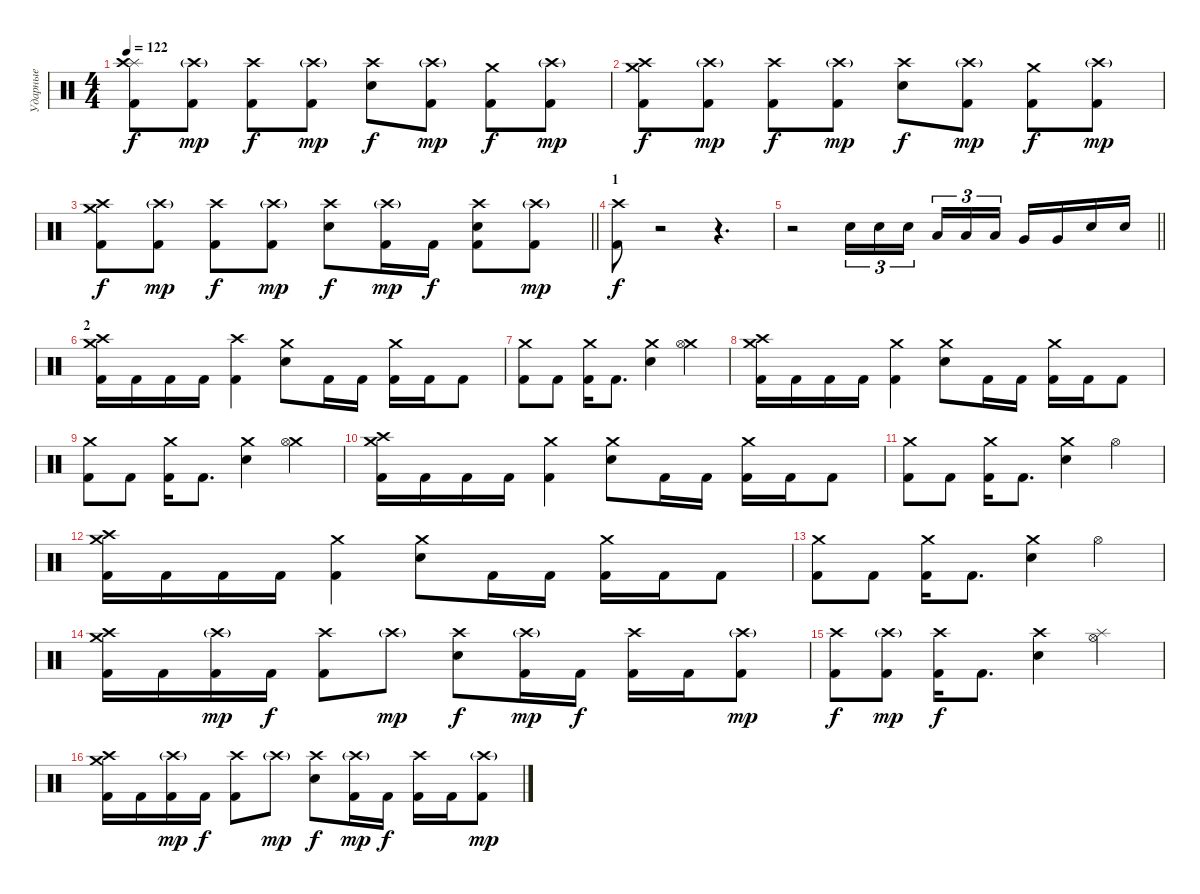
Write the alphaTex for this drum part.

\track ("Ударные" "Ударные") {instrument percussion}
\staff {score}
\articulation defaults
\ts (4 4)
\tempo 122
\clef neutral
\ks c
("Splash (hit)" "Crash high (hit)" "Kick (hit) 2").8{dy f} ("Crash high (hit)"{g} "Kick (hit) 2").8{dy mp} ("Crash high (hit)" "Kick (hit) 2").8{dy f} ("Crash high (hit)"{g} "Kick (hit) 2").8{dy mp} ("Crash high (hit)" "Electric Snare (hit)").8{dy f} ("Crash high (hit)"{g} "Kick (hit) 2").8{dy mp} ("Crash medium (hit)" "Kick (hit) 2").8{dy f} ("Crash high (hit)"{g} "Kick (hit) 2").8{dy mp} |
("Crash medium (hit)" "Crash high (hit)" "Kick (hit) 2").8{dy f} ("Crash high (hit)"{g} "Kick (hit) 2").8{dy mp} ("Crash high (hit)" "Kick (hit) 2").8{dy f} ("Crash high (hit)"{g} "Kick (hit) 2").8{dy mp} ("Crash high (hit)" "Electric Snare (hit)").8{dy f} ("Crash high (hit)"{g} "Kick (hit) 2").8{dy mp} ("Crash medium (hit)" "Kick (hit) 2").8{dy f} ("Crash high (hit)"{g} "Kick (hit) 2").8{dy mp} |
\barLineRight lightlight
("Crash medium (hit)" "Crash high (hit)" "Kick (hit) 2").8{dy f} ("Crash high (hit)"{g} "Kick (hit) 2").8{dy mp} ("Crash high (hit)" "Kick (hit) 2").8{dy f} ("Crash high (hit)"{g} "Kick (hit) 2").8{dy mp} ("Crash high (hit)" "Electric Snare (hit)").8{dy f} ("Crash high (hit)"{g} "Kick (hit) 2").16{dy mp} "Kick (hit) 2".16{dy f} ("Crash high (hit)" "Electric Snare (hit)" "Kick (hit) 2").8 ("Crash high (hit)"{g} "Kick (hit) 2").8{dy mp} |
\section ("" "1")
("Crash high (hit)" "Kick (hit) 2").8{dy f} r.2{volume 0} r.4{d} |
\barLineRight lightlight
r.2{volume 13} "Electric Snare (hit)".16{tu (3 2)} "Electric Snare (hit)".16{tu (3 2)} "Electric Snare (hit)".16{tu (3 2) beam splitsecondary} "Low Floor Tom (hit)".16{tu (3 2)} "Low Floor Tom (hit)".16{tu (3 2)} "Low Floor Tom (hit)".16{tu (3 2)} "Very Low Tom (hit)".16 "Very Low Tom (hit)".16 "Electric Snare (hit)".16 "Electric Snare (hit)".16 |
\section ("" "2")
("Crash medium (hit)" "Crash high (hit)" "Kick (hit) 2").16 "Kick (hit) 2".16 "Kick (hit) 2".16 "Kick (hit) 2".16 ("Crash high (hit)" "Kick (hit) 2").4 ("Crash medium (hit)" "Electric Snare (hit)").8 "Kick (hit) 2".16 "Kick (hit) 2".16 ("Crash medium (hit)" "Kick (hit) 2").16 "Kick (hit) 2".16 "Kick (hit) 2".8 |
("Crash medium (hit)" "Kick (hit) 2").8 "Kick (hit) 2".8 ("Crash medium (hit)" "Kick (hit) 2").16 "Kick (hit) 2".8{d} ("Crash medium (hit)" "Electric Snare (hit)").4 ("Crash medium (hit)" "Hi-Hat (open)").4 |
("Crash medium (hit)" "Crash high (hit)" "Kick (hit) 2").16 "Kick (hit) 2".16 "Kick (hit) 2".16 "Kick (hit) 2".16 ("Crash medium (hit)" "Kick (hit) 2").4 ("Crash medium (hit)" "Electric Snare (hit)").8 "Kick (hit) 2".16 "Kick (hit) 2".16 ("Crash medium (hit)" "Kick (hit) 2").16 "Kick (hit) 2".16 "Kick (hit) 2".8 |
("Crash medium (hit)" "Kick (hit) 2").8 "Kick (hit) 2".8 ("Crash medium (hit)" "Kick (hit) 2").16 "Kick (hit) 2".8{d} ("Crash medium (hit)" "Electric Snare (hit)").4 ("Crash medium (hit)" "Hi-Hat (open)").4 |
("Crash medium (hit)" "Crash high (hit)" "Kick (hit) 2").16 "Kick (hit) 2".16 "Kick (hit) 2".16 "Kick (hit) 2".16 ("Crash medium (hit)" "Kick (hit) 2").4 ("Crash medium (hit)" "Electric Snare (hit)").8 "Kick (hit) 2".16 "Kick (hit) 2".16 ("Crash medium (hit)" "Kick (hit) 2").16 "Kick (hit) 2".16 "Kick (hit) 2".8 |
("Crash medium (hit)" "Kick (hit) 2").8 "Kick (hit) 2".8 ("Crash medium (hit)" "Kick (hit) 2").16 "Kick (hit) 2".8{d} ("Crash medium (hit)" "Electric Snare (hit)").4 "Hi-Hat (open)".4 |
("Crash medium (hit)" "Crash high (hit)" "Kick (hit) 2").16 "Kick (hit) 2".16 "Kick (hit) 2".16 "Kick (hit) 2".16 ("Crash medium (hit)" "Kick (hit) 2").4 ("Crash medium (hit)" "Electric Snare (hit)").8 "Kick (hit) 2".16 "Kick (hit) 2".16 ("Crash medium (hit)" "Kick (hit) 2").16 "Kick (hit) 2".16 "Kick (hit) 2".8 |
("Crash medium (hit)" "Kick (hit) 2").8 "Kick (hit) 2".8 ("Crash medium (hit)" "Kick (hit) 2").16 "Kick (hit) 2".8{d} ("Crash medium (hit)" "Electric Snare (hit)").4 "Hi-Hat (open)".4 |
("Crash medium (hit)" "Crash high (hit)" "Kick (hit) 2").16 "Kick (hit) 2".16 ("Crash high (hit)"{g} "Kick (hit) 2").16{dy mp} "Kick (hit) 2".16{dy f} ("Crash high (hit)" "Kick (hit) 2").8 "Crash high (hit)"{g}.8{dy mp} ("Crash high (hit)" "Electric Snare (hit)").8{dy f} ("Crash high (hit)"{g} "Kick (hit) 2").16{dy mp} "Kick (hit) 2".16{dy f} ("Crash high (hit)" "Kick (hit) 2").16 "Kick (hit) 2".16 ("Crash high (hit)"{g} "Kick (hit) 2").8{dy mp} |
("Crash high (hit)" "Kick (hit) 2").8{dy f} ("Crash high (hit)"{g} "Kick (hit) 2").8{dy mp} ("Crash high (hit)" "Kick (hit) 2").16{dy f} "Kick (hit) 2".8{d} ("Crash high (hit)" "Electric Snare (hit)").4 ("Hi-Hat (open)" "Splash (hit)").4 |
("Crash medium (hit)" "Crash high (hit)" "Kick (hit) 2").16 "Kick (hit) 2".16 ("Crash high (hit)"{g} "Kick (hit) 2").16{dy mp} "Kick (hit) 2".16{dy f} ("Crash high (hit)" "Kick (hit) 2").8 "Crash high (hit)"{g}.8{dy mp} ("Crash high (hit)" "Electric Snare (hit)").8{dy f} ("Crash high (hit)"{g} "Kick (hit) 2").16{dy mp} "Kick (hit) 2".16{dy f} ("Crash high (hit)" "Kick (hit) 2").16 "Kick (hit) 2".16 ("Crash high (hit)"{g} "Kick (hit) 2").8{dy mp}
